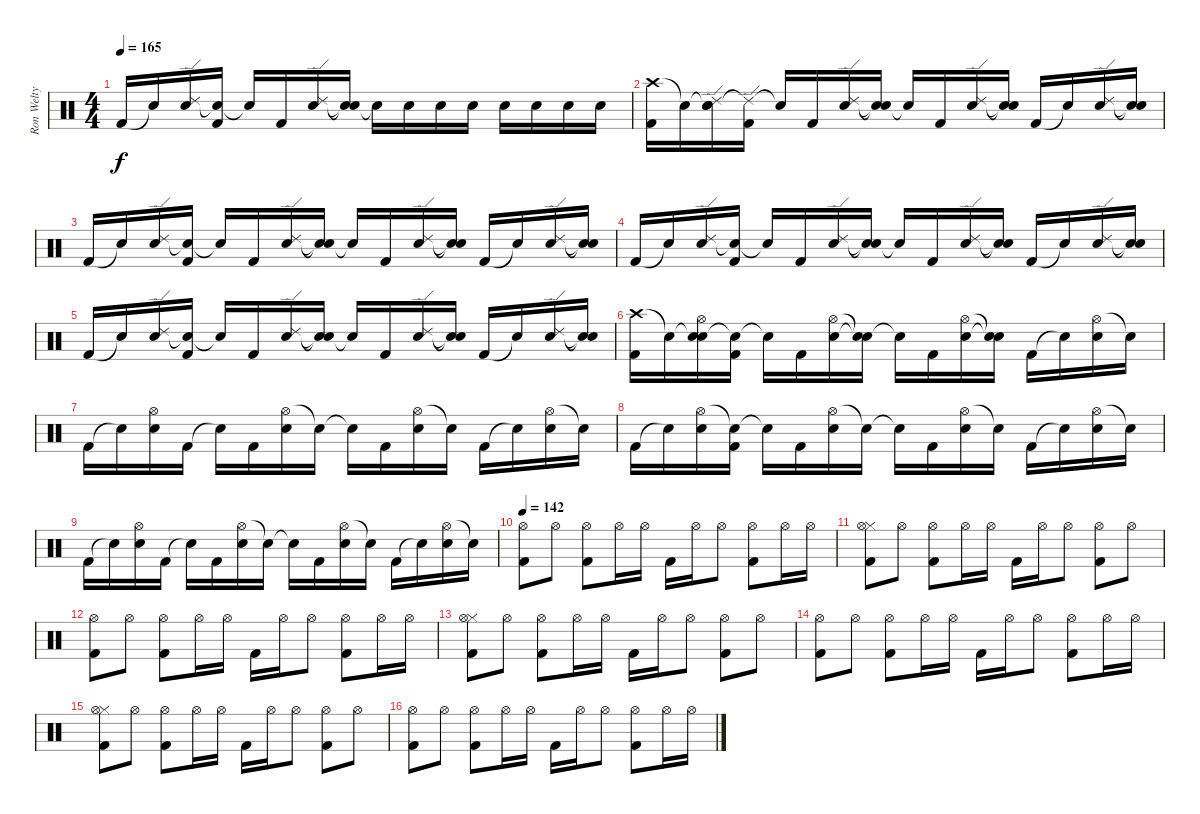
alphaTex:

\track ("Ron Welty" "Ron Welty") {instrument percussion}
\staff {score}
\articulation defaults
\ts (4 4)
\tempo 165
\clef neutral
\ks c "Kick (hit) 2".16{dy f} "Snare (hit)"{t}.16
("Ride (edge) 2" "Electric Snare (hit)").16 ("Snare (hit)"{t} "Kick (hit) 2").16 "Snare (hit)"{t}.16 "Kick (hit) 2".16 ("Ride (edge) 2" "Electric Snare (hit)").16 ("Snare (hit)"{t} "Snare (hit)"{t}).16 "Snare (hit)"{t}.16 "Electric Snare (hit)".16 "Electric Snare (hit)".16 "Electric Snare (hit)".16 "Snare (hit) 2".16 "Snare (hit) 2".16 "Snare (hit) 2".16 "Snare (hit) 2".16 |
("Crash high (hit)" "Kick (hit) 2").16 "Snare (hit)"{t}.16 ("Snare (hit)"{t} "Ride (edge) 2" "Electric Snare (hit)").16 ("Ride (edge) 2"{t} "Kick (hit) 2").16 "Snare (hit)"{t}.16 "Kick (hit) 2".16 ("Ride (edge) 2" "Electric Snare (hit)").16 ("Snare (hit)"{t} "Snare (hit)"{t}).16 "Snare (hit)"{t}.16 "Kick (hit) 2".16 ("Ride (edge) 2" "Electric Snare (hit)").16 ("Snare (hit)"{t} "Snare (hit)"{t}).16 "Kick (hit) 2".16 "Snare (hit)"{t}.16 ("Ride (edge) 2" "Electric Snare (hit)").16 ("Snare (hit)"{t} "Snare (hit)"{t}).16 |
"Kick (hit) 2".16 "Snare (hit)"{t}.16 ("Ride (edge) 2" "Electric Snare (hit)").16 ("Snare (hit)"{t} "Kick (hit) 2").16 "Snare (hit)"{t}.16 "Kick (hit) 2".16 ("Ride (edge) 2" "Electric Snare (hit)").16 ("Snare (hit)"{t} "Snare (hit)"{t}).16 "Snare (hit)"{t}.16 "Kick (hit) 2".16 ("Ride (edge) 2" "Electric Snare (hit)").16 ("Snare (hit)"{t} "Snare (hit)"{t}).16 "Kick (hit) 2".16 "Snare (hit)"{t}.16 ("Ride (edge) 2" "Electric Snare (hit)").16 ("Snare (hit)"{t} "Snare (hit)"{t}).16 |
"Kick (hit) 2".16 "Snare (hit)"{t}.16 ("Ride (edge) 2" "Electric Snare (hit)").16 ("Snare (hit)"{t} "Kick (hit) 2").16 "Snare (hit)"{t}.16 "Kick (hit) 2".16 ("Ride (edge) 2" "Electric Snare (hit)").16 ("Snare (hit)"{t} "Snare (hit)"{t}).16 "Snare (hit)"{t}.16 "Kick (hit) 2".16 ("Ride (edge) 2" "Electric Snare (hit)").16 ("Snare (hit)"{t} "Snare (hit)"{t}).16 "Kick (hit) 2".16 "Snare (hit)"{t}.16 ("Ride (edge) 2" "Electric Snare (hit)").16 ("Snare (hit)"{t} "Snare (hit)"{t}).16 |
"Kick (hit) 2".16 "Snare (hit)"{t}.16 ("Ride (edge) 2" "Electric Snare (hit)").16 ("Snare (hit)"{t} "Kick (hit) 2").16 "Snare (hit)"{t}.16 "Kick (hit) 2".16 ("Ride (edge) 2" "Electric Snare (hit)").16 ("Snare (hit)"{t} "Snare (hit)"{t}).16 "Snare (hit)"{t}.16 "Kick (hit) 2".16 ("Ride (edge) 2" "Electric Snare (hit)").16 ("Snare (hit)"{t} "Snare (hit)"{t}).16 "Kick (hit) 2".16 "Snare (hit)"{t}.16 ("Ride (edge) 2" "Electric Snare (hit)").16 ("Snare (hit)"{t} "Snare (hit)"{t}).16 |
("Crash high (hit)" "Kick (hit) 2").16 "Snare (hit)"{t}.16 ("Snare (hit)"{t} "Hi-Hat (open)" "Electric Snare (hit)").16 ("Snare (hit)"{t} "Kick (hit) 2").16 "Snare (hit)"{t}.16 "Kick (hit) 2".16 ("Hi-Hat (open)" "Electric Snare (hit)").16 ("Snare (hit)"{t} "Snare (hit)"{t}).16 "Snare (hit)"{t}.16 "Kick (hit) 2".16 ("Hi-Hat (open)" "Electric Snare (hit)").16 ("Snare (hit)"{t} "Snare (hit)"{t}).16 "Kick (hit) 2".16 "Snare (hit)"{t}.16 ("Hi-Hat (open)" "Electric Snare (hit)").16 "Snare (hit)"{t}.16 |
"Kick (hit) 2".16 "Snare (hit)"{t}.16 ("Hi-Hat (open)" "Electric Snare (hit)").16 "Kick (hit) 2".16 "Snare (hit)"{t}.16 "Kick (hit) 2".16 ("Hi-Hat (open)" "Electric Snare (hit)").16 "Snare (hit)"{t}.16 "Snare (hit)"{t}.16 "Kick (hit) 2".16 ("Hi-Hat (open)" "Electric Snare (hit)").16 "Snare (hit)"{t}.16 "Kick (hit) 2".16 "Snare (hit)"{t}.16 ("Hi-Hat (open)" "Electric Snare (hit)").16 "Snare (hit)"{t}.16 |
"Kick (hit) 2".16 "Snare (hit)"{t}.16 ("Hi-Hat (open)" "Electric Snare (hit)").16 ("Snare (hit)"{t} "Kick (hit) 2").16 "Snare (hit)"{t}.16 "Kick (hit) 2".16 ("Hi-Hat (open)" "Electric Snare (hit)").16 "Snare (hit)"{t}.16 "Snare (hit)"{t}.16 "Kick (hit) 2".16 ("Hi-Hat (open)" "Electric Snare (hit)").16 "Snare (hit)"{t}.16 "Kick (hit) 2".16 "Snare (hit)"{t}.16 ("Hi-Hat (open)" "Electric Snare (hit)").16 "Snare (hit)"{t}.16 |
"Kick (hit) 2".16 "Snare (hit)"{t}.16 ("Hi-Hat (open)" "Electric Snare (hit)").16 "Kick (hit) 2".16 "Snare (hit)"{t}.16 "Kick (hit) 2".16 ("Hi-Hat (open)" "Electric Snare (hit)").16 "Snare (hit)"{t}.16 "Snare (hit)"{t}.16 "Kick (hit) 2".16 ("Hi-Hat (open)" "Electric Snare (hit)").16 "Snare (hit)"{t}.16 "Kick (hit) 2".16 "Snare (hit)"{t}.16 ("Hi-Hat (open)" "Electric Snare (hit)").16 "Snare (hit)"{t}.16 |
\tempo 142
("Hi-Hat (open)" "Kick (hit) 2").8 "Hi-Hat (open)".8 ("Hi-Hat (open)" "Kick (hit) 2").8 "Hi-Hat (open)".16 "Hi-Hat (open)".16 "Kick (hit) 2".16 "Hi-Hat (open)".16 "Hi-Hat (open)".8 ("Hi-Hat (open)" "Kick (hit) 2").8 "Hi-Hat (open)".16 "Hi-Hat (open)".16 |
("Hi-Hat (closed)" "Hi-Hat (open)" "Kick (hit) 2").8 "Hi-Hat (open)".8 ("Hi-Hat (open)" "Kick (hit) 2").8 "Hi-Hat (open)".16 "Hi-Hat (open)".16 "Kick (hit) 2".16 "Hi-Hat (open)".16 "Hi-Hat (open)".8 ("Hi-Hat (open)" "Kick (hit) 2").8 "Hi-Hat (open)".8 |
("Hi-Hat (open)" "Kick (hit) 2").8 "Hi-Hat (open)".8 ("Hi-Hat (open)" "Kick (hit) 2").8 "Hi-Hat (open)".16 "Hi-Hat (open)".16 "Kick (hit) 2".16 "Hi-Hat (open)".16 "Hi-Hat (open)".8 ("Hi-Hat (open)" "Kick (hit) 2").8 "Hi-Hat (open)".16 "Hi-Hat (open)".16 |
("Hi-Hat (closed)" "Hi-Hat (open)" "Kick (hit) 2").8 "Hi-Hat (open)".8 ("Hi-Hat (open)" "Kick (hit) 2").8 "Hi-Hat (open)".16 "Hi-Hat (open)".16 "Kick (hit) 2".16 "Hi-Hat (open)".16 "Hi-Hat (open)".8 ("Hi-Hat (open)" "Kick (hit) 2").8 "Hi-Hat (open)".8 |
("Hi-Hat (open)" "Kick (hit) 2").8 "Hi-Hat (open)".8 ("Hi-Hat (open)" "Kick (hit) 2").8 "Hi-Hat (open)".16 "Hi-Hat (open)".16 "Kick (hit) 2".16 "Hi-Hat (open)".16 "Hi-Hat (open)".8 ("Hi-Hat (open)" "Kick (hit) 2").8 "Hi-Hat (open)".16 "Hi-Hat (open)".16 |
("Hi-Hat (closed)" "Hi-Hat (open)" "Kick (hit) 2").8 "Hi-Hat (open)".8 ("Hi-Hat (open)" "Kick (hit) 2").8 "Hi-Hat (open)".16 "Hi-Hat (open)".16 "Kick (hit) 2".16 "Hi-Hat (open)".16 "Hi-Hat (open)".8 ("Hi-Hat (open)" "Kick (hit) 2").8 "Hi-Hat (open)".8 |
("Hi-Hat (open)" "Kick (hit) 2").8 "Hi-Hat (open)".8 ("Hi-Hat (open)" "Kick (hit) 2").8 "Hi-Hat (open)".16 "Hi-Hat (open)".16 "Kick (hit) 2".16 "Hi-Hat (open)".16 "Hi-Hat (open)".8 ("Hi-Hat (open)" "Kick (hit) 2").8 "Hi-Hat (open)".16 "Hi-Hat (open)".16
